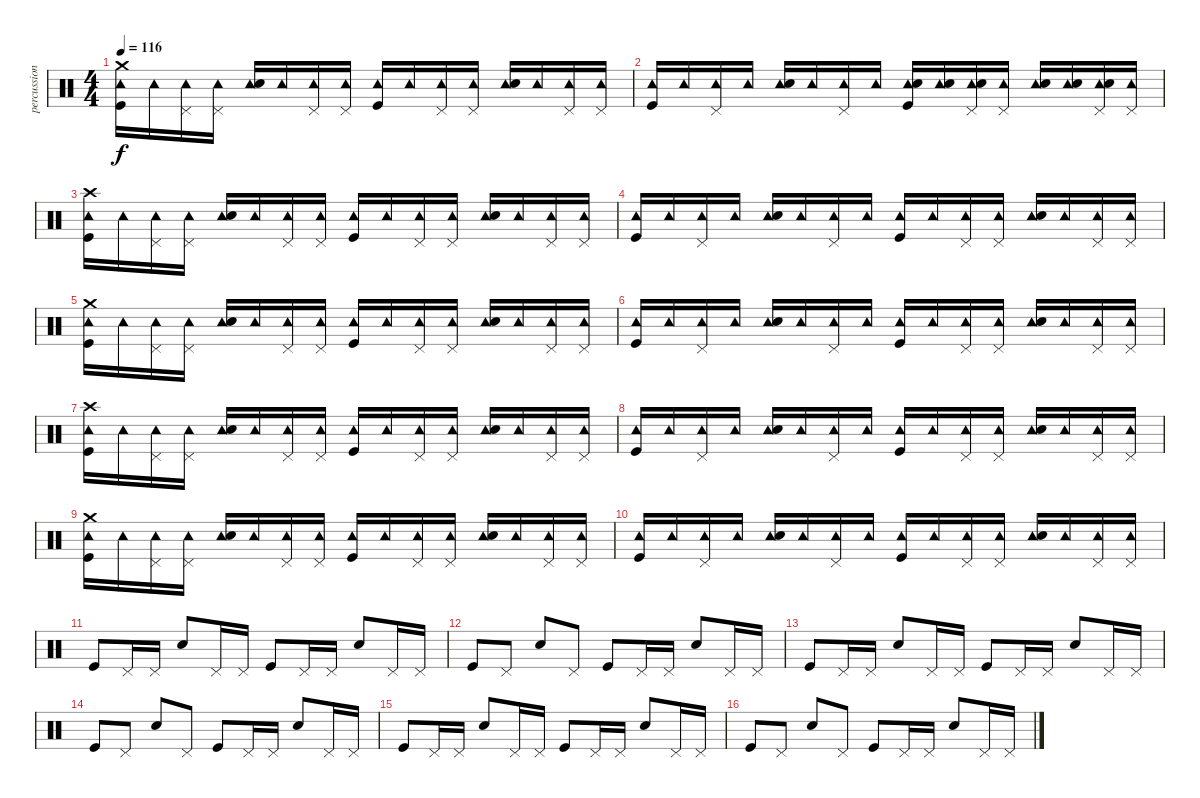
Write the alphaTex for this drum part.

\track ("percussion" "percussion") {instrument percussion}
\staff {score}
\articulation defaults
\ts (4 4)
\tempo 116
\clef neutral
\ks c
("Crash medium (hit)" "Tambourine (hit)" "Kick (hit)").16{dy f} "Tambourine (hit)".16 ("Tambourine (hit)" "Pedal Hi-Hat (hit)").16 ("Tambourine (hit)" "Pedal Hi-Hat (hit)").16 ("Tambourine (hit)" "Electric Snare (hit)").16 "Tambourine (hit)".16 ("Tambourine (hit)" "Pedal Hi-Hat (hit)").16 ("Tambourine (hit)" "Pedal Hi-Hat (hit)").16 ("Tambourine (hit)" "Kick (hit)").16 "Tambourine (hit)".16 ("Tambourine (hit)" "Pedal Hi-Hat (hit)").16 ("Tambourine (hit)" "Pedal Hi-Hat (hit)").16 ("Tambourine (hit)" "Electric Snare (hit)").16 "Tambourine (hit)".16 ("Tambourine (hit)" "Pedal Hi-Hat (hit)").16 ("Tambourine (hit)" "Pedal Hi-Hat (hit)").16 |
("Tambourine (hit)" "Kick (hit)").16 "Tambourine (hit)".16 ("Tambourine (hit)" "Pedal Hi-Hat (hit)").16 "Tambourine (hit)".16 ("Tambourine (hit)" "Electric Snare (hit)").16 "Tambourine (hit)".16 ("Tambourine (hit)" "Pedal Hi-Hat (hit)").16 "Tambourine (hit)".16 ("Tambourine (hit)" "Electric Snare (hit)" "Kick (hit)").16 ("Tambourine (hit)" "Electric Snare (hit)").16 ("Tambourine (hit)" "Electric Snare (hit)" "Pedal Hi-Hat (hit)").16 ("Tambourine (hit)" "Pedal Hi-Hat (hit)").16 ("Tambourine (hit)" "Electric Snare (hit)").16 ("Tambourine (hit)" "Electric Snare (hit)").16 ("Tambourine (hit)" "Electric Snare (hit)" "Pedal Hi-Hat (hit)").16 ("Tambourine (hit)" "Pedal Hi-Hat (hit)").16 |
("Crash high (hit)" "Tambourine (hit)" "Kick (hit)").16 "Tambourine (hit)".16 ("Tambourine (hit)" "Pedal Hi-Hat (hit)").16 ("Tambourine (hit)" "Pedal Hi-Hat (hit)").16 ("Tambourine (hit)" "Electric Snare (hit)").16 "Tambourine (hit)".16 ("Tambourine (hit)" "Pedal Hi-Hat (hit)").16 ("Tambourine (hit)" "Pedal Hi-Hat (hit)").16 ("Tambourine (hit)" "Kick (hit)").16 "Tambourine (hit)".16 ("Tambourine (hit)" "Pedal Hi-Hat (hit)").16 ("Tambourine (hit)" "Pedal Hi-Hat (hit)").16 ("Tambourine (hit)" "Electric Snare (hit)").16 "Tambourine (hit)".16 ("Tambourine (hit)" "Pedal Hi-Hat (hit)").16 ("Tambourine (hit)" "Pedal Hi-Hat (hit)").16 |
("Tambourine (hit)" "Kick (hit)").16 "Tambourine (hit)".16 ("Tambourine (hit)" "Pedal Hi-Hat (hit)").16 "Tambourine (hit)".16 ("Tambourine (hit)" "Electric Snare (hit)").16 "Tambourine (hit)".16 ("Tambourine (hit)" "Pedal Hi-Hat (hit)").16 "Tambourine (hit)".16 ("Tambourine (hit)" "Kick (hit)").16 "Tambourine (hit)".16 ("Tambourine (hit)" "Pedal Hi-Hat (hit)").16 ("Tambourine (hit)" "Pedal Hi-Hat (hit)").16 ("Tambourine (hit)" "Electric Snare (hit)").16 "Tambourine (hit)".16 ("Tambourine (hit)" "Pedal Hi-Hat (hit)").16 ("Tambourine (hit)" "Pedal Hi-Hat (hit)").16 |
("Crash medium (hit)" "Tambourine (hit)" "Kick (hit)").16 "Tambourine (hit)".16 ("Tambourine (hit)" "Pedal Hi-Hat (hit)").16 ("Tambourine (hit)" "Pedal Hi-Hat (hit)").16 ("Tambourine (hit)" "Electric Snare (hit)").16 "Tambourine (hit)".16 ("Tambourine (hit)" "Pedal Hi-Hat (hit)").16 ("Tambourine (hit)" "Pedal Hi-Hat (hit)").16 ("Tambourine (hit)" "Kick (hit)").16 "Tambourine (hit)".16 ("Tambourine (hit)" "Pedal Hi-Hat (hit)").16 ("Tambourine (hit)" "Pedal Hi-Hat (hit)").16 ("Tambourine (hit)" "Electric Snare (hit)").16 "Tambourine (hit)".16 ("Tambourine (hit)" "Pedal Hi-Hat (hit)").16 ("Tambourine (hit)" "Pedal Hi-Hat (hit)").16 |
("Tambourine (hit)" "Kick (hit)").16 "Tambourine (hit)".16 ("Tambourine (hit)" "Pedal Hi-Hat (hit)").16 "Tambourine (hit)".16 ("Tambourine (hit)" "Electric Snare (hit)").16 "Tambourine (hit)".16 ("Tambourine (hit)" "Pedal Hi-Hat (hit)").16 "Tambourine (hit)".16 ("Tambourine (hit)" "Kick (hit)").16 "Tambourine (hit)".16 ("Tambourine (hit)" "Pedal Hi-Hat (hit)").16 ("Tambourine (hit)" "Pedal Hi-Hat (hit)").16 ("Tambourine (hit)" "Electric Snare (hit)").16 "Tambourine (hit)".16 ("Tambourine (hit)" "Pedal Hi-Hat (hit)").16 ("Tambourine (hit)" "Pedal Hi-Hat (hit)").16 |
("Crash high (hit)" "Tambourine (hit)" "Kick (hit)").16 "Tambourine (hit)".16 ("Tambourine (hit)" "Pedal Hi-Hat (hit)").16 ("Tambourine (hit)" "Pedal Hi-Hat (hit)").16 ("Tambourine (hit)" "Electric Snare (hit)").16 "Tambourine (hit)".16 ("Tambourine (hit)" "Pedal Hi-Hat (hit)").16 ("Tambourine (hit)" "Pedal Hi-Hat (hit)").16 ("Tambourine (hit)" "Kick (hit)").16 "Tambourine (hit)".16 ("Tambourine (hit)" "Pedal Hi-Hat (hit)").16 ("Tambourine (hit)" "Pedal Hi-Hat (hit)").16 ("Tambourine (hit)" "Electric Snare (hit)").16 "Tambourine (hit)".16 ("Tambourine (hit)" "Pedal Hi-Hat (hit)").16 ("Tambourine (hit)" "Pedal Hi-Hat (hit)").16 |
("Tambourine (hit)" "Kick (hit)").16 "Tambourine (hit)".16 ("Tambourine (hit)" "Pedal Hi-Hat (hit)").16 "Tambourine (hit)".16 ("Tambourine (hit)" "Electric Snare (hit)").16 "Tambourine (hit)".16 ("Tambourine (hit)" "Pedal Hi-Hat (hit)").16 "Tambourine (hit)".16 ("Tambourine (hit)" "Kick (hit)").16 "Tambourine (hit)".16 ("Tambourine (hit)" "Pedal Hi-Hat (hit)").16 ("Tambourine (hit)" "Pedal Hi-Hat (hit)").16 ("Tambourine (hit)" "Electric Snare (hit)").16 "Tambourine (hit)".16 ("Tambourine (hit)" "Pedal Hi-Hat (hit)").16 ("Tambourine (hit)" "Pedal Hi-Hat (hit)").16 |
("Crash medium (hit)" "Tambourine (hit)" "Kick (hit)").16 "Tambourine (hit)".16 ("Tambourine (hit)" "Pedal Hi-Hat (hit)").16 ("Tambourine (hit)" "Pedal Hi-Hat (hit)").16 ("Tambourine (hit)" "Electric Snare (hit)").16 "Tambourine (hit)".16 ("Tambourine (hit)" "Pedal Hi-Hat (hit)").16 ("Tambourine (hit)" "Pedal Hi-Hat (hit)").16 ("Tambourine (hit)" "Kick (hit)").16 "Tambourine (hit)".16 ("Tambourine (hit)" "Pedal Hi-Hat (hit)").16 ("Tambourine (hit)" "Pedal Hi-Hat (hit)").16 ("Tambourine (hit)" "Electric Snare (hit)").16 "Tambourine (hit)".16 ("Tambourine (hit)" "Pedal Hi-Hat (hit)").16 ("Tambourine (hit)" "Pedal Hi-Hat (hit)").16 |
("Tambourine (hit)" "Kick (hit)").16 "Tambourine (hit)".16 ("Tambourine (hit)" "Pedal Hi-Hat (hit)").16 "Tambourine (hit)".16 ("Tambourine (hit)" "Electric Snare (hit)").16 "Tambourine (hit)".16 ("Tambourine (hit)" "Pedal Hi-Hat (hit)").16 "Tambourine (hit)".16 ("Tambourine (hit)" "Kick (hit)").16 "Tambourine (hit)".16 ("Tambourine (hit)" "Pedal Hi-Hat (hit)").16 ("Tambourine (hit)" "Pedal Hi-Hat (hit)").16 ("Tambourine (hit)" "Electric Snare (hit)").16 "Tambourine (hit)".16 ("Tambourine (hit)" "Pedal Hi-Hat (hit)").16 ("Tambourine (hit)" "Pedal Hi-Hat (hit)").16 |
"Kick (hit)".8 "Pedal Hi-Hat (hit)".16 "Pedal Hi-Hat (hit)".16 "Electric Snare (hit)".8 "Pedal Hi-Hat (hit)".16 "Pedal Hi-Hat (hit)".16 "Kick (hit)".8 "Pedal Hi-Hat (hit)".16 "Pedal Hi-Hat (hit)".16 "Electric Snare (hit)".8 "Pedal Hi-Hat (hit)".16 "Pedal Hi-Hat (hit)".16 |
"Kick (hit)".8 "Pedal Hi-Hat (hit)".8 "Electric Snare (hit)".8 "Pedal Hi-Hat (hit)".8 "Kick (hit)".8 "Pedal Hi-Hat (hit)".16 "Pedal Hi-Hat (hit)".16 "Electric Snare (hit)".8 "Pedal Hi-Hat (hit)".16 "Pedal Hi-Hat (hit)".16 |
"Kick (hit)".8 "Pedal Hi-Hat (hit)".16 "Pedal Hi-Hat (hit)".16 "Electric Snare (hit)".8 "Pedal Hi-Hat (hit)".16 "Pedal Hi-Hat (hit)".16 "Kick (hit)".8 "Pedal Hi-Hat (hit)".16 "Pedal Hi-Hat (hit)".16 "Electric Snare (hit)".8 "Pedal Hi-Hat (hit)".16 "Pedal Hi-Hat (hit)".16 |
"Kick (hit)".8 "Pedal Hi-Hat (hit)".8 "Electric Snare (hit)".8 "Pedal Hi-Hat (hit)".8 "Kick (hit)".8 "Pedal Hi-Hat (hit)".16 "Pedal Hi-Hat (hit)".16 "Electric Snare (hit)".8 "Pedal Hi-Hat (hit)".16 "Pedal Hi-Hat (hit)".16 |
"Kick (hit)".8 "Pedal Hi-Hat (hit)".16 "Pedal Hi-Hat (hit)".16 "Electric Snare (hit)".8 "Pedal Hi-Hat (hit)".16 "Pedal Hi-Hat (hit)".16 "Kick (hit)".8 "Pedal Hi-Hat (hit)".16 "Pedal Hi-Hat (hit)".16 "Electric Snare (hit)".8 "Pedal Hi-Hat (hit)".16 "Pedal Hi-Hat (hit)".16 |
"Kick (hit)".8 "Pedal Hi-Hat (hit)".8 "Electric Snare (hit)".8 "Pedal Hi-Hat (hit)".8 "Kick (hit)".8 "Pedal Hi-Hat (hit)".16 "Pedal Hi-Hat (hit)".16 "Electric Snare (hit)".8 "Pedal Hi-Hat (hit)".16 "Pedal Hi-Hat (hit)".16
